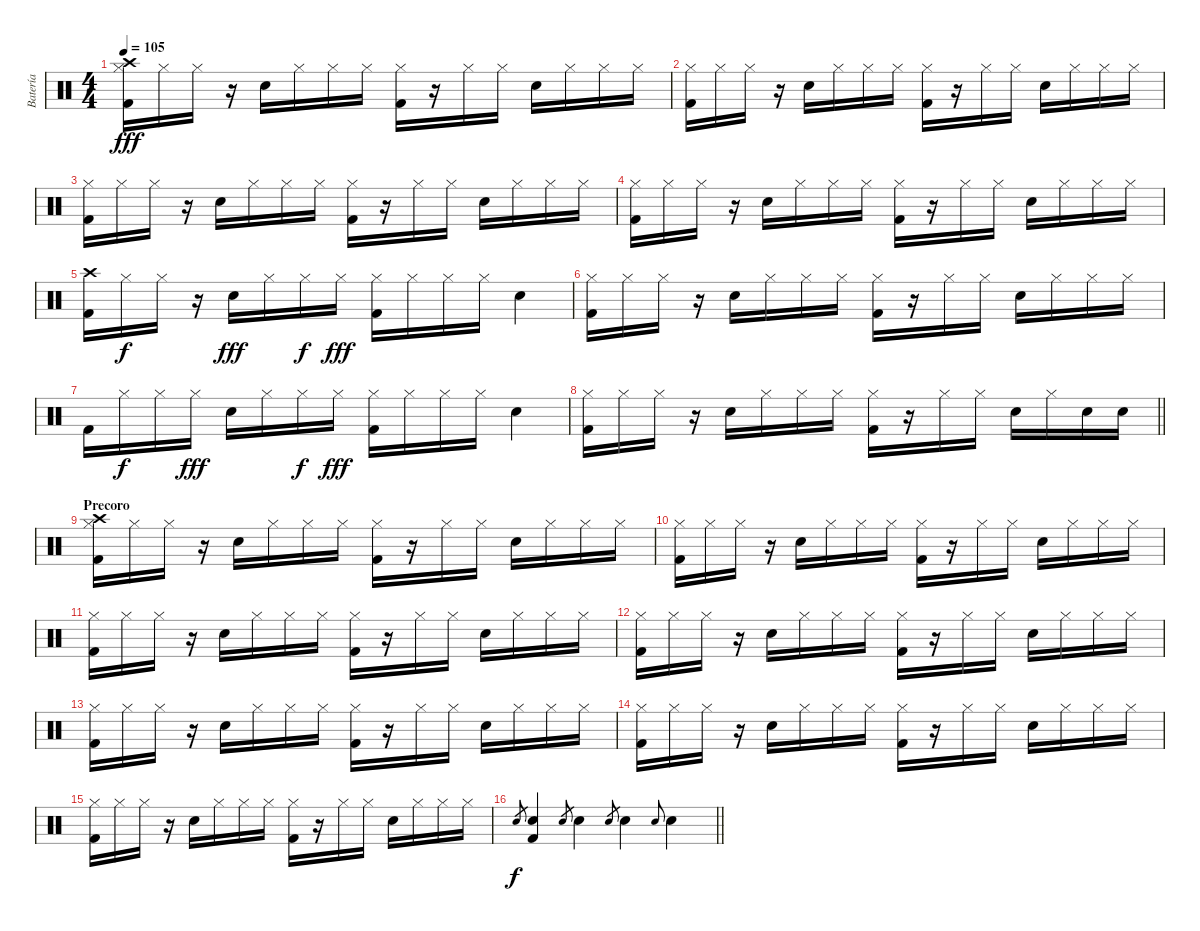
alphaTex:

\track ("Batería" "Batería") {instrument percussion}
\staff {score}
\articulation defaults
\ts (4 4)
\tempo 105
\clef neutral
\ks c
("Crash high (hit)" "Hi-Hat (closed)" "Kick (hit) 2").16{dy fff} "Hi-Hat (closed)".16 "Hi-Hat (closed)".16 r.16 "Electric Snare (hit)".16 "Hi-Hat (closed)".16 "Hi-Hat (closed)".16 "Hi-Hat (closed)".16 ("Hi-Hat (closed)" "Kick (hit) 2").16 r.16 "Hi-Hat (closed)".16 "Hi-Hat (closed)".16 "Electric Snare (hit)".16 "Hi-Hat (closed)".16 "Hi-Hat (closed)".16 "Hi-Hat (closed)".16 |
("Hi-Hat (closed)" "Kick (hit) 2").16 "Hi-Hat (closed)".16 "Hi-Hat (closed)".16 r.16 "Electric Snare (hit)".16 "Hi-Hat (closed)".16 "Hi-Hat (closed)".16 "Hi-Hat (closed)".16 ("Hi-Hat (closed)" "Kick (hit) 2").16 r.16 "Hi-Hat (closed)".16 "Hi-Hat (closed)".16 "Electric Snare (hit)".16 "Hi-Hat (closed)".16 "Hi-Hat (closed)".16 "Hi-Hat (closed)".16 |
("Hi-Hat (closed)" "Kick (hit) 2").16 "Hi-Hat (closed)".16 "Hi-Hat (closed)".16 r.16 "Electric Snare (hit)".16 "Hi-Hat (closed)".16 "Hi-Hat (closed)".16 "Hi-Hat (closed)".16 ("Hi-Hat (closed)" "Kick (hit) 2").16 r.16 "Hi-Hat (closed)".16 "Hi-Hat (closed)".16 "Electric Snare (hit)".16 "Hi-Hat (closed)".16 "Hi-Hat (closed)".16 "Hi-Hat (closed)".16 |
("Hi-Hat (closed)" "Kick (hit) 2").16 "Hi-Hat (closed)".16 "Hi-Hat (closed)".16 r.16 "Electric Snare (hit)".16 "Hi-Hat (closed)".16 "Hi-Hat (closed)".16 "Hi-Hat (closed)".16 ("Hi-Hat (closed)" "Kick (hit) 2").16 r.16 "Hi-Hat (closed)".16 "Hi-Hat (closed)".16 "Electric Snare (hit)".16 "Hi-Hat (closed)".16 "Hi-Hat (closed)".16 "Hi-Hat (closed)".16 |
("Crash high (hit)" "Kick (hit) 2").16 "Hi-Hat (closed)".16{dy f} "Hi-Hat (closed)".16 r.16 "Electric Snare (hit)".16{dy fff} "Hi-Hat (closed)".16 "Hi-Hat (closed)".16{dy f} "Hi-Hat (closed)".16{dy fff} ("Hi-Hat (closed)" "Kick (hit) 2").16 "Hi-Hat (closed)".16 "Hi-Hat (closed)".16 "Hi-Hat (closed)".16 "Electric Snare (hit)".4 |
("Hi-Hat (closed)" "Kick (hit) 2").16 "Hi-Hat (closed)".16 "Hi-Hat (closed)".16 r.16 "Electric Snare (hit)".16 "Hi-Hat (closed)".16 "Hi-Hat (closed)".16 "Hi-Hat (closed)".16 ("Hi-Hat (closed)" "Kick (hit) 2").16 r.16 "Hi-Hat (closed)".16 "Hi-Hat (closed)".16 "Electric Snare (hit)".16 "Hi-Hat (closed)".16 "Hi-Hat (closed)".16 "Hi-Hat (closed)".16 |
"Kick (hit) 2".16 "Hi-Hat (closed)".16{dy f} "Hi-Hat (closed)".16 "Hi-Hat (closed)".16{dy fff} "Electric Snare (hit)".16 "Hi-Hat (closed)".16 "Hi-Hat (closed)".16{dy f} "Hi-Hat (closed)".16{dy fff} ("Hi-Hat (closed)" "Kick (hit) 2").16 "Hi-Hat (closed)".16 "Hi-Hat (closed)".16 "Hi-Hat (closed)".16 "Electric Snare (hit)".4 |
\barLineRight lightlight
("Hi-Hat (closed)" "Kick (hit) 2").16 "Hi-Hat (closed)".16 "Hi-Hat (closed)".16 r.16 "Electric Snare (hit)".16 "Hi-Hat (closed)".16 "Hi-Hat (closed)".16 "Hi-Hat (closed)".16 ("Hi-Hat (closed)" "Kick (hit) 2").16 r.16 "Hi-Hat (closed)".16 "Hi-Hat (closed)".16 "Electric Snare (hit)".16 "Hi-Hat (closed)".16 "Electric Snare (hit)".16 "Electric Snare (hit)".16 |
\section ("" "Precoro")
("Crash high (hit)" "Hi-Hat (closed)" "Kick (hit) 2").16 "Hi-Hat (closed)".16 "Hi-Hat (closed)".16 r.16 "Electric Snare (hit)".16 "Hi-Hat (closed)".16 "Hi-Hat (closed)".16 "Hi-Hat (closed)".16 ("Hi-Hat (closed)" "Kick (hit) 2").16 r.16 "Hi-Hat (closed)".16 "Hi-Hat (closed)".16 "Electric Snare (hit)".16 "Hi-Hat (closed)".16 "Hi-Hat (closed)".16 "Hi-Hat (closed)".16 |
("Hi-Hat (closed)" "Kick (hit) 2").16 "Hi-Hat (closed)".16 "Hi-Hat (closed)".16 r.16 "Electric Snare (hit)".16 "Hi-Hat (closed)".16 "Hi-Hat (closed)".16 "Hi-Hat (closed)".16 ("Hi-Hat (closed)" "Kick (hit) 2").16 r.16 "Hi-Hat (closed)".16 "Hi-Hat (closed)".16 "Electric Snare (hit)".16 "Hi-Hat (closed)".16 "Hi-Hat (closed)".16 "Hi-Hat (closed)".16 |
("Hi-Hat (closed)" "Kick (hit) 2").16 "Hi-Hat (closed)".16 "Hi-Hat (closed)".16 r.16 "Electric Snare (hit)".16 "Hi-Hat (closed)".16 "Hi-Hat (closed)".16 "Hi-Hat (closed)".16 ("Hi-Hat (closed)" "Kick (hit) 2").16 r.16 "Hi-Hat (closed)".16 "Hi-Hat (closed)".16 "Electric Snare (hit)".16 "Hi-Hat (closed)".16 "Hi-Hat (closed)".16 "Hi-Hat (closed)".16 |
("Hi-Hat (closed)" "Kick (hit) 2").16 "Hi-Hat (closed)".16 "Hi-Hat (closed)".16 r.16 "Electric Snare (hit)".16 "Hi-Hat (closed)".16 "Hi-Hat (closed)".16 "Hi-Hat (closed)".16 ("Hi-Hat (closed)" "Kick (hit) 2").16 r.16 "Hi-Hat (closed)".16 "Hi-Hat (closed)".16 "Electric Snare (hit)".16 "Hi-Hat (closed)".16 "Hi-Hat (closed)".16 "Hi-Hat (closed)".16 |
("Hi-Hat (closed)" "Kick (hit) 2").16 "Hi-Hat (closed)".16 "Hi-Hat (closed)".16 r.16 "Electric Snare (hit)".16 "Hi-Hat (closed)".16 "Hi-Hat (closed)".16 "Hi-Hat (closed)".16 ("Hi-Hat (closed)" "Kick (hit) 2").16 r.16 "Hi-Hat (closed)".16 "Hi-Hat (closed)".16 "Electric Snare (hit)".16 "Hi-Hat (closed)".16 "Hi-Hat (closed)".16 "Hi-Hat (closed)".16 |
("Hi-Hat (closed)" "Kick (hit) 2").16 "Hi-Hat (closed)".16 "Hi-Hat (closed)".16 r.16 "Electric Snare (hit)".16 "Hi-Hat (closed)".16 "Hi-Hat (closed)".16 "Hi-Hat (closed)".16 ("Hi-Hat (closed)" "Kick (hit) 2").16 r.16 "Hi-Hat (closed)".16 "Hi-Hat (closed)".16 "Electric Snare (hit)".16 "Hi-Hat (closed)".16 "Hi-Hat (closed)".16 "Hi-Hat (closed)".16 |
("Hi-Hat (closed)" "Kick (hit) 2").16 "Hi-Hat (closed)".16 "Hi-Hat (closed)".16 r.16 "Electric Snare (hit)".16 "Hi-Hat (closed)".16 "Hi-Hat (closed)".16 "Hi-Hat (closed)".16 ("Hi-Hat (closed)" "Kick (hit) 2").16 r.16 "Hi-Hat (closed)".16 "Hi-Hat (closed)".16 "Electric Snare (hit)".16 "Hi-Hat (closed)".16 "Hi-Hat (closed)".16 "Hi-Hat (closed)".16 |
\barLineRight lightlight "Electric Snare (hit)".8{gr dy f}
("Electric Snare (hit)" "Kick (hit) 2").4 "Electric Snare (hit)".8{gr} "Electric Snare (hit)".4 "Electric Snare (hit)".8{gr} "Electric Snare (hit)".4 "Electric Snare (hit)".8{gr onbeat} "Electric Snare (hit)".4
